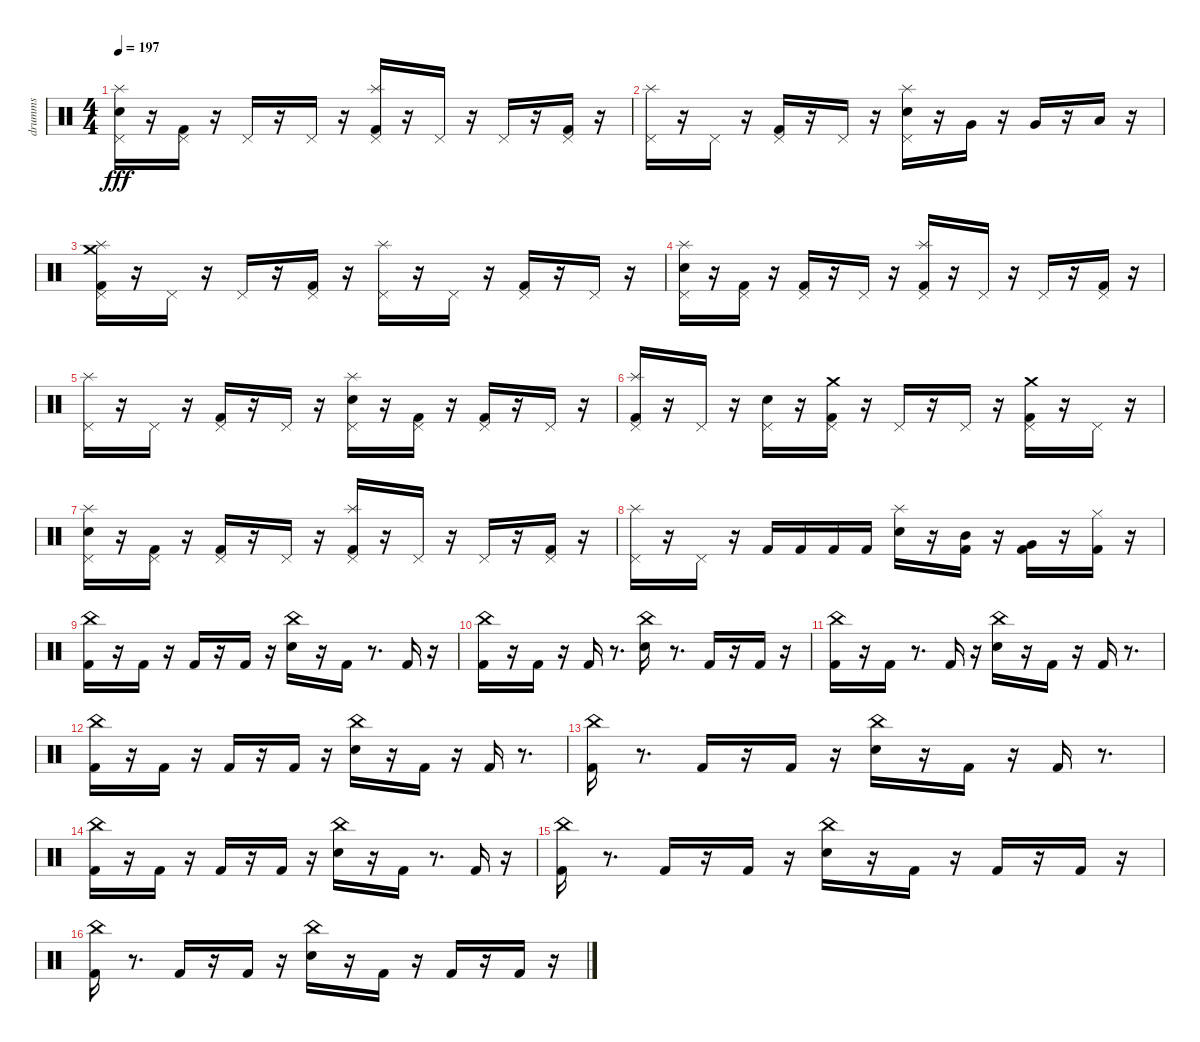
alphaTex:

\track ("drumms" "drumms") {instrument percussion}
\staff {score}
\articulation defaults
\ts (4 4)
\tempo 197
\clef neutral
\ks c
("Snare (hit) 2" "Pedal Hi-Hat (hit)" "Splash (hit)").16{dy fff} r.16 ("Kick (hit) 2" "Pedal Hi-Hat (hit)").16{volume 12} r.16 "Pedal Hi-Hat (hit)".16 r.16 "Pedal Hi-Hat (hit)".16 r.16 ("Kick (hit) 2" "Pedal Hi-Hat (hit)" "Splash (hit)").16{volume 12} r.16 "Pedal Hi-Hat (hit)".16 r.16 "Pedal Hi-Hat (hit)".16{volume 12} r.16 ("Kick (hit) 2" "Pedal Hi-Hat (hit)").16 r.16 |
("Pedal Hi-Hat (hit)" "Splash (hit)").16{volume 12} r.16 "Pedal Hi-Hat (hit)".16{volume 12} r.16 ("Kick (hit) 2" "Pedal Hi-Hat (hit)").16 r.16 "Pedal Hi-Hat (hit)".16 r.16 ("Snare (hit) 2" "Pedal Hi-Hat (hit)" "Splash (hit)").16 r.16 "Very Low Tom (hit)".16 r.16 "Very Low Tom (hit)".16 r.16 "Low Floor Tom (hit)".16 r.16 |
("Kick (hit) 2" "Pedal Hi-Hat (hit)" "Splash (hit)" "Crash medium (hit)").16 r.16 "Pedal Hi-Hat (hit)".16{volume 12} r.16 "Pedal Hi-Hat (hit)".16 r.16 ("Kick (hit) 2" "Pedal Hi-Hat (hit)").16 r.16 ("Pedal Hi-Hat (hit)" "Splash (hit)").16{volume 12} r.16 "Pedal Hi-Hat (hit)".16{volume 12} r.16 ("Kick (hit) 2" "Pedal Hi-Hat (hit)").16 r.16 "Pedal Hi-Hat (hit)".16 r.16 |
("Snare (hit) 2" "Pedal Hi-Hat (hit)" "Splash (hit)").16 r.16 ("Kick (hit) 2" "Pedal Hi-Hat (hit)").16{volume 12} r.16 ("Kick (hit) 2" "Pedal Hi-Hat (hit)").16 r.16 "Pedal Hi-Hat (hit)".16 r.16 ("Kick (hit) 2" "Pedal Hi-Hat (hit)" "Splash (hit)").16{volume 12} r.16 "Pedal Hi-Hat (hit)".16 r.16 "Pedal Hi-Hat (hit)".16{volume 12} r.16 ("Kick (hit) 2" "Pedal Hi-Hat (hit)").16 r.16 |
("Pedal Hi-Hat (hit)" "Splash (hit)").16{volume 12} r.16 "Pedal Hi-Hat (hit)".16{volume 12} r.16 ("Kick (hit) 2" "Pedal Hi-Hat (hit)").16 r.16 "Pedal Hi-Hat (hit)".16 r.16 ("Snare (hit) 2" "Pedal Hi-Hat (hit)" "Splash (hit)").16 r.16 ("Kick (hit) 2" "Pedal Hi-Hat (hit)").16 r.16 ("Kick (hit) 2" "Pedal Hi-Hat (hit)").16 r.16 "Pedal Hi-Hat (hit)".16 r.16 |
("Kick (hit) 2" "Pedal Hi-Hat (hit)" "Splash (hit)").16 r.16 "Pedal Hi-Hat (hit)".16{volume 12} r.16 ("Snare (hit) 2" "Pedal Hi-Hat (hit)").16 r.16 ("Kick (hit) 2" "Pedal Hi-Hat (hit)" "Crash medium (hit)").16 r.16 "Pedal Hi-Hat (hit)".16{volume 12} r.16 "Pedal Hi-Hat (hit)".16{volume 12} r.16 ("Kick (hit) 2" "Pedal Hi-Hat (hit)" "Crash medium (hit)").16 r.16 "Pedal Hi-Hat (hit)".16 r.16 |
("Snare (hit) 2" "Pedal Hi-Hat (hit)" "Splash (hit)").16 r.16 ("Kick (hit) 2" "Pedal Hi-Hat (hit)").16{volume 12} r.16 ("Kick (hit) 2" "Pedal Hi-Hat (hit)").16 r.16 "Pedal Hi-Hat (hit)".16 r.16 ("Kick (hit) 2" "Pedal Hi-Hat (hit)" "Splash (hit)").16{volume 12} r.16 "Pedal Hi-Hat (hit)".16 r.16 "Pedal Hi-Hat (hit)".16{volume 12} r.16 ("Kick (hit) 2" "Pedal Hi-Hat (hit)").16 r.16 |
("Pedal Hi-Hat (hit)" "Splash (hit)").16{volume 12} r.16 "Pedal Hi-Hat (hit)".16{volume 12} r.16 "Kick (hit) 2".16 "Kick (hit) 2".16 "Kick (hit) 2".16 "Kick (hit) 2".16 ("Snare (hit) 2" "Splash (hit)").16 r.16 ("Kick (hit) 2" "Mid Tom (hit)").16 r.16 ("Kick (hit) 2" "Very Low Tom (hit)").16 r.16 ("Kick (hit) 2" "Hi-Hat (closed)").16 r.16 |
("Kick (hit) 2" "China (hit)").16 r.16 "Kick (hit) 2".16{volume 12} r.16 "Kick (hit) 2".16 r.16 "Kick (hit) 2".16 r.16 ("Snare (hit) 2" "China (hit)").16{volume 12} r.16 "Kick (hit) 2".16{volume 12} r.8{d} "Kick (hit) 2".16 r.16 |
("China (hit)" "Kick (hit) 2").16 r.16 "Kick (hit) 2".16{volume 12} r.16 "Kick (hit) 2".16 r.8{d} ("Snare (hit) 2" "China (hit)").16{volume 12} r.8{d} "Kick (hit) 2".16{volume 12} r.16 "Kick (hit) 2".16 r.16 |
("Kick (hit) 2" "China (hit)").16{volume 12} r.16 "Kick (hit) 2".16{volume 12} r.8{d} "Kick (hit) 2".16 r.16 ("Snare (hit) 2" "China (hit)").16 r.16 "Kick (hit) 2".16 r.16 "Kick (hit) 2".16 r.8{d} |
("Kick (hit) 2" "China (hit)").16 r.16 "Kick (hit) 2".16 r.16 "Kick (hit) 2".16 r.16 "Kick (hit) 2".16 r.16 ("Snare (hit) 2" "China (hit)").16 r.16 "Kick (hit) 2".16 r.16 "Kick (hit) 2".16{volume 12} r.8{d} |
("Kick (hit) 2" "China (hit)").16{volume 12} r.8{d} "Kick (hit) 2".16{volume 12} r.16 "Kick (hit) 2".16{volume 12} r.16 ("Snare (hit) 2" "China (hit)").16{volume 12} r.16 "Kick (hit) 2".16 r.16 "Kick (hit) 2".16 r.8{d} |
("Kick (hit) 2" "China (hit)").16 r.16 "Kick (hit) 2".16 r.16 "Kick (hit) 2".16 r.16 "Kick (hit) 2".16{volume 12} r.16 ("Snare (hit) 2" "China (hit)").16{volume 12} r.16 "Kick (hit) 2".16 r.8{d} "Kick (hit) 2".16{volume 12} r.16 |
("Kick (hit) 2" "China (hit)").16{volume 12} r.8{d} "Kick (hit) 2".16{volume 12} r.16 "Kick (hit) 2".16 r.16 ("Snare (hit) 2" "China (hit)").16{volume 12} r.16 "Kick (hit) 2".16{volume 12} r.16 "Kick (hit) 2".16 r.16 "Kick (hit) 2".16 r.16 |
("Kick (hit) 2" "China (hit)").16 r.8{d} "Kick (hit) 2".16{volume 12} r.16 "Kick (hit) 2".16 r.16 ("Snare (hit) 2" "China (hit)").16{volume 12} r.16 "Kick (hit) 2".16 r.16 "Kick (hit) 2".16{volume 12} r.16 "Kick (hit) 2".16 r.16
